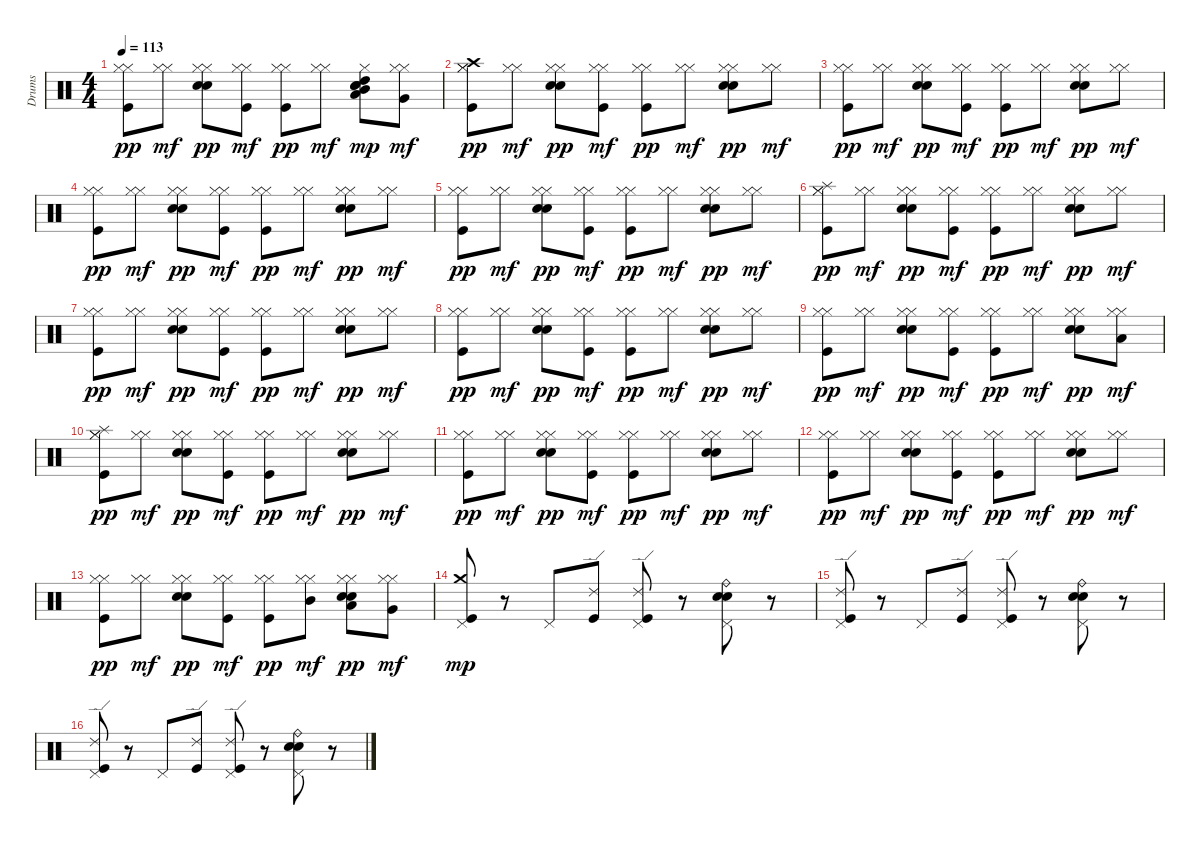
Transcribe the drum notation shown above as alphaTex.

\track ("Drums" "Drums") {instrument percussion}
\staff {score}
\articulation defaults
\ts (4 4)
\tempo 113
\clef neutral
\ks c
("Kick (hit)" "Hi-Hat (closed)" "Hi-Hat (closed)").8{dy pp} ("Hi-Hat (closed)" "Hi-Hat (closed)").8{dy mf} ("Snare (hit) 2" "Electric Snare (hit)" "Hi-Hat (closed)" "Hi-Hat (closed)").8{dy pp} ("Kick (hit)" "Hi-Hat (closed)" "Hi-Hat (closed)").8{dy mf} ("Kick (hit)" "Hi-Hat (closed)" "Hi-Hat (closed)").8{dy pp} ("Hi-Hat (closed)" "Hi-Hat (closed)").8{dy mf} ("Mid Tom (hit)" "High Tom (hit)" "Snare (hit) 2" "Electric Snare (hit)" "Hi-Hat (closed)" "Low Tom (hit)").8{dy mp} ("Very Low Tom (hit)" "Hi-Hat (closed)" "Hi-Hat (closed)").8{dy mf} |
("Crash high (hit)" "Kick (hit)" "Hi-Hat (closed)" "Hi-Hat (closed)").8{dy pp} ("Hi-Hat (closed)" "Hi-Hat (closed)").8{dy mf} ("Snare (hit) 2" "Electric Snare (hit)" "Hi-Hat (closed)" "Hi-Hat (closed)").8{dy pp} ("Kick (hit)" "Hi-Hat (closed)" "Hi-Hat (closed)").8{dy mf} ("Kick (hit)" "Hi-Hat (closed)" "Hi-Hat (closed)").8{dy pp} ("Hi-Hat (closed)" "Hi-Hat (closed)").8{dy mf} ("Snare (hit) 2" "Electric Snare (hit)" "Hi-Hat (closed)" "Hi-Hat (closed)").8{dy pp} ("Hi-Hat (closed)" "Hi-Hat (closed)").8{dy mf} |
("Kick (hit)" "Hi-Hat (closed)" "Hi-Hat (closed)").8{dy pp} ("Hi-Hat (closed)" "Hi-Hat (closed)").8{dy mf} ("Snare (hit) 2" "Electric Snare (hit)" "Hi-Hat (closed)" "Hi-Hat (closed)").8{dy pp} ("Kick (hit)" "Hi-Hat (closed)" "Hi-Hat (closed)").8{dy mf} ("Kick (hit)" "Hi-Hat (closed)" "Hi-Hat (closed)").8{dy pp} ("Hi-Hat (closed)" "Hi-Hat (closed)").8{dy mf} ("Snare (hit) 2" "Electric Snare (hit)" "Hi-Hat (closed)" "Hi-Hat (closed)").8{dy pp} ("Hi-Hat (closed)" "Hi-Hat (closed)").8{dy mf} |
("Kick (hit)" "Hi-Hat (closed)" "Hi-Hat (closed)").8{dy pp} ("Hi-Hat (closed)" "Hi-Hat (closed)").8{dy mf} ("Snare (hit) 2" "Electric Snare (hit)" "Hi-Hat (closed)" "Hi-Hat (closed)").8{dy pp} ("Kick (hit)" "Hi-Hat (closed)" "Hi-Hat (closed)").8{dy mf} ("Kick (hit)" "Hi-Hat (closed)" "Hi-Hat (closed)").8{dy pp} ("Hi-Hat (closed)" "Hi-Hat (closed)").8{dy mf} ("Snare (hit) 2" "Electric Snare (hit)" "Hi-Hat (closed)" "Hi-Hat (closed)").8{dy pp} ("Hi-Hat (closed)" "Hi-Hat (closed)").8{dy mf} |
("Kick (hit)" "Hi-Hat (closed)" "Hi-Hat (closed)").8{dy pp} ("Hi-Hat (closed)" "Hi-Hat (closed)").8{dy mf} ("Snare (hit) 2" "Electric Snare (hit)" "Hi-Hat (closed)" "Hi-Hat (closed)").8{dy pp} ("Kick (hit)" "Hi-Hat (closed)" "Hi-Hat (closed)").8{dy mf} ("Kick (hit)" "Hi-Hat (closed)" "Hi-Hat (closed)").8{dy pp} ("Hi-Hat (closed)" "Hi-Hat (closed)").8{dy mf} ("Snare (hit) 2" "Electric Snare (hit)" "Hi-Hat (closed)" "Hi-Hat (closed)").8{dy pp} ("Hi-Hat (closed)" "Hi-Hat (closed)").8{dy mf} |
("Splash (hit)" "Kick (hit)" "Hi-Hat (closed)" "Hi-Hat (closed)").8{dy pp} ("Hi-Hat (closed)" "Hi-Hat (closed)").8{dy mf} ("Snare (hit) 2" "Electric Snare (hit)" "Hi-Hat (closed)" "Hi-Hat (closed)").8{dy pp} ("Kick (hit)" "Hi-Hat (closed)" "Hi-Hat (closed)").8{dy mf} ("Kick (hit)" "Hi-Hat (closed)" "Hi-Hat (closed)").8{dy pp} ("Hi-Hat (closed)" "Hi-Hat (closed)").8{dy mf} ("Snare (hit) 2" "Electric Snare (hit)" "Hi-Hat (closed)" "Hi-Hat (closed)").8{dy pp} ("Hi-Hat (closed)" "Hi-Hat (closed)").8{dy mf} |
("Kick (hit)" "Hi-Hat (closed)" "Hi-Hat (closed)").8{dy pp} ("Hi-Hat (closed)" "Hi-Hat (closed)").8{dy mf} ("Snare (hit) 2" "Electric Snare (hit)" "Hi-Hat (closed)" "Hi-Hat (closed)").8{dy pp} ("Kick (hit)" "Hi-Hat (closed)" "Hi-Hat (closed)").8{dy mf} ("Kick (hit)" "Hi-Hat (closed)" "Hi-Hat (closed)").8{dy pp} ("Hi-Hat (closed)" "Hi-Hat (closed)").8{dy mf} ("Snare (hit) 2" "Electric Snare (hit)" "Hi-Hat (closed)" "Hi-Hat (closed)").8{dy pp} ("Hi-Hat (closed)" "Hi-Hat (closed)").8{dy mf} |
("Kick (hit)" "Hi-Hat (closed)" "Hi-Hat (closed)").8{dy pp} ("Hi-Hat (closed)" "Hi-Hat (closed)").8{dy mf} ("Snare (hit) 2" "Electric Snare (hit)" "Hi-Hat (closed)" "Hi-Hat (closed)").8{dy pp} ("Kick (hit)" "Hi-Hat (closed)" "Hi-Hat (closed)").8{dy mf} ("Kick (hit)" "Hi-Hat (closed)" "Hi-Hat (closed)").8{dy pp} ("Hi-Hat (closed)" "Hi-Hat (closed)").8{dy mf} ("Snare (hit) 2" "Electric Snare (hit)" "Hi-Hat (closed)" "Hi-Hat (closed)").8{dy pp} ("Hi-Hat (closed)" "Hi-Hat (closed)").8{dy mf} |
("Kick (hit)" "Hi-Hat (closed)" "Hi-Hat (closed)").8{dy pp} ("Hi-Hat (closed)" "Hi-Hat (closed)").8{dy mf} ("Snare (hit) 2" "Electric Snare (hit)" "Hi-Hat (closed)" "Hi-Hat (closed)").8{dy pp} ("Kick (hit)" "Hi-Hat (closed)" "Hi-Hat (closed)").8{dy mf} ("Kick (hit)" "Hi-Hat (closed)" "Hi-Hat (closed)").8{dy pp} ("Hi-Hat (closed)" "Hi-Hat (closed)").8{dy mf} ("Snare (hit) 2" "Electric Snare (hit)" "Hi-Hat (closed)" "Hi-Hat (closed)").8{dy pp} ("Low Tom (hit)" "Hi-Hat (closed)" "Hi-Hat (closed)").8{dy mf} |
("Splash (hit)" "Kick (hit)" "Hi-Hat (closed)" "Hi-Hat (closed)").8{dy pp} ("Hi-Hat (closed)" "Hi-Hat (closed)").8{dy mf} ("Snare (hit) 2" "Electric Snare (hit)" "Hi-Hat (closed)" "Hi-Hat (closed)").8{dy pp} ("Kick (hit)" "Hi-Hat (closed)" "Hi-Hat (closed)").8{dy mf} ("Kick (hit)" "Hi-Hat (closed)" "Hi-Hat (closed)").8{dy pp} ("Hi-Hat (closed)" "Hi-Hat (closed)").8{dy mf} ("Snare (hit) 2" "Electric Snare (hit)" "Hi-Hat (closed)" "Hi-Hat (closed)").8{dy pp} ("Hi-Hat (closed)" "Hi-Hat (closed)").8{dy mf} |
("Kick (hit)" "Hi-Hat (closed)" "Hi-Hat (closed)").8{dy pp} ("Hi-Hat (closed)" "Hi-Hat (closed)").8{dy mf} ("Snare (hit) 2" "Electric Snare (hit)" "Hi-Hat (closed)" "Hi-Hat (closed)").8{dy pp} ("Kick (hit)" "Hi-Hat (closed)" "Hi-Hat (closed)").8{dy mf} ("Kick (hit)" "Hi-Hat (closed)" "Hi-Hat (closed)").8{dy pp} ("Hi-Hat (closed)" "Hi-Hat (closed)").8{dy mf} ("Snare (hit) 2" "Electric Snare (hit)" "Hi-Hat (closed)" "Hi-Hat (closed)").8{dy pp} ("Hi-Hat (closed)" "Hi-Hat (closed)").8{dy mf} |
("Kick (hit)" "Hi-Hat (closed)" "Hi-Hat (closed)").8{dy pp} ("Hi-Hat (closed)" "Hi-Hat (closed)").8{dy mf} ("Snare (hit) 2" "Electric Snare (hit)" "Hi-Hat (closed)" "Hi-Hat (closed)").8{dy pp} ("Kick (hit)" "Hi-Hat (closed)" "Hi-Hat (closed)").8{dy mf} ("Kick (hit)" "Hi-Hat (closed)" "Hi-Hat (closed)").8{dy pp} ("Hi-Hat (closed)" "Hi-Hat (closed)").8{dy mf} ("Snare (hit) 2" "Electric Snare (hit)" "Hi-Hat (closed)" "Hi-Hat (closed)").8{dy pp} ("Hi-Hat (closed)" "Hi-Hat (closed)").8{dy mf} |
("Kick (hit)" "Hi-Hat (closed)" "Hi-Hat (closed)").8{dy pp} ("Hi-Hat (closed)" "Hi-Hat (closed)").8{dy mf} ("Snare (hit) 2" "Electric Snare (hit)" "Hi-Hat (closed)" "Hi-Hat (closed)").8{dy pp} ("Kick (hit)" "Hi-Hat (closed)" "Hi-Hat (closed)").8{dy mf} ("Kick (hit)" "Hi-Hat (closed)" "Hi-Hat (closed)").8{dy pp} ("Mid Tom (hit)" "Hi-Hat (closed)" "Hi-Hat (closed)").8{dy mf} ("Low Tom (hit)" "Snare (hit) 2" "Electric Snare (hit)" "Hi-Hat (closed)" "Hi-Hat (closed)").8{dy pp} ("Very Low Tom (hit)" "Hi-Hat (closed)" "Hi-Hat (closed)").8{dy mf} |
("Crash medium (hit)" "Kick (hit)" "Pedal Hi-Hat (hit)").8{dy mp} r.8 "Pedal Hi-Hat (hit)".8 ("Ride (edge) 2" "Kick (hit)").8 ("Ride (edge) 2" "Kick (hit)" "Pedal Hi-Hat (hit)").8 r.8 ("Ride (bell)" "Snare (hit) 2" "Electric Snare (hit)" "Pedal Hi-Hat (hit)").8 r.8 |
("Ride (edge) 2" "Kick (hit)" "Pedal Hi-Hat (hit)").8 r.8 "Pedal Hi-Hat (hit)".8 ("Ride (edge) 2" "Kick (hit)").8 ("Ride (edge) 2" "Kick (hit)" "Pedal Hi-Hat (hit)").8 r.8 ("Ride (bell)" "Snare (hit) 2" "Electric Snare (hit)" "Pedal Hi-Hat (hit)").8 r.8 |
("Ride (edge) 2" "Kick (hit)" "Pedal Hi-Hat (hit)").8 r.8 "Pedal Hi-Hat (hit)".8 ("Ride (edge) 2" "Kick (hit)").8 ("Ride (edge) 2" "Kick (hit)" "Pedal Hi-Hat (hit)").8 r.8 ("Ride (bell)" "Snare (hit) 2" "Electric Snare (hit)" "Pedal Hi-Hat (hit)").8 r.8
